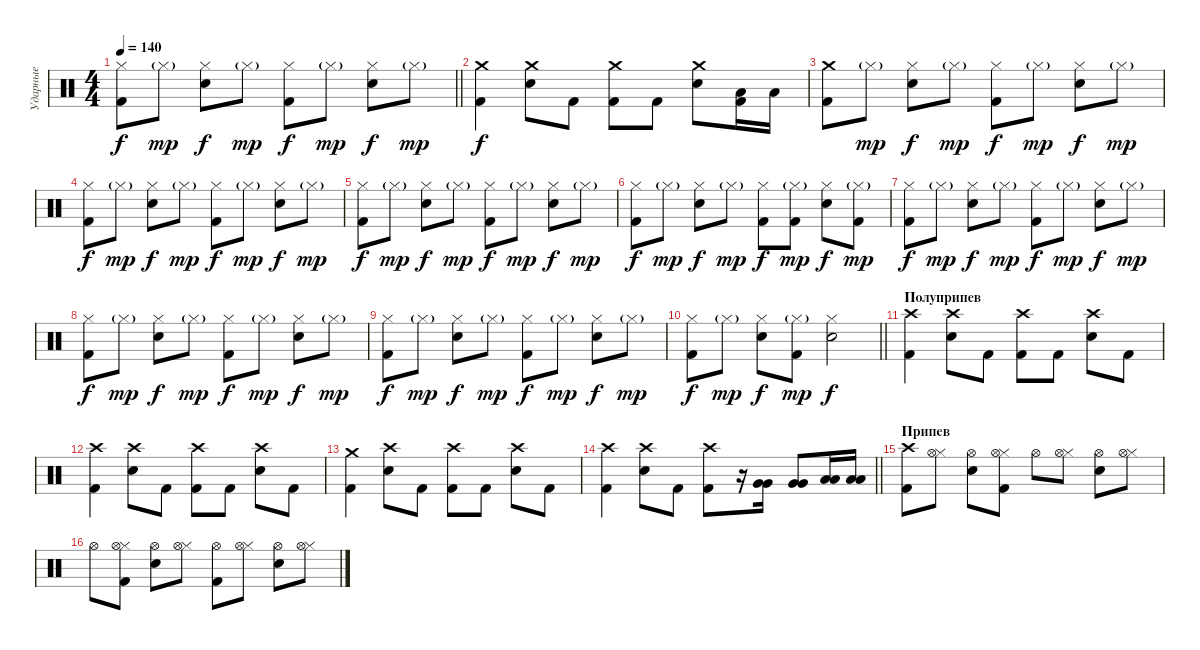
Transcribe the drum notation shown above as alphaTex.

\track ("Ударные" "Ударные") {instrument percussion}
\staff {score}
\articulation defaults
\ts (4 4)
\tempo 140
\clef neutral
\barLineRight lightlight
\ks c
("Hi-Hat (closed)" "Kick (hit) 2").8{dy f} "Hi-Hat (closed)"{g}.8{dy mp} ("Hi-Hat (closed)" "Snare (hit) 2").8{dy f} "Hi-Hat (closed)"{g}.8{dy mp} ("Hi-Hat (closed)" "Kick (hit) 2").8{dy f} "Hi-Hat (closed)"{g}.8{dy mp} ("Hi-Hat (closed)" "Snare (hit) 2").8{dy f} "Hi-Hat (closed)"{g}.8{dy mp} |
("Crash medium (hit)" "Kick (hit) 2").4{dy f} ("Crash medium (hit)" "Snare (hit) 2").8 "Kick (hit) 2".8 ("Crash medium (hit)" "Kick (hit) 2").8 "Kick (hit) 2".8 ("Crash medium (hit)" "Snare (hit) 2").8 ("Low Tom (hit)" "Kick (hit) 2").16 "Low Tom (hit)".16 |
("Crash medium (hit)" "Kick (hit) 2").8 "Hi-Hat (closed)"{g}.8{dy mp} ("Hi-Hat (closed)" "Snare (hit) 2").8{dy f} "Hi-Hat (closed)"{g}.8{dy mp} ("Hi-Hat (closed)" "Kick (hit) 2").8{dy f} "Hi-Hat (closed)"{g}.8{dy mp} ("Hi-Hat (closed)" "Snare (hit) 2").8{dy f} "Hi-Hat (closed)"{g}.8{dy mp} |
("Hi-Hat (closed)" "Kick (hit) 2").8{dy f} "Hi-Hat (closed)"{g}.8{dy mp} ("Hi-Hat (closed)" "Snare (hit) 2").8{dy f} "Hi-Hat (closed)"{g}.8{dy mp} ("Hi-Hat (closed)" "Kick (hit) 2").8{dy f} "Hi-Hat (closed)"{g}.8{dy mp} ("Hi-Hat (closed)" "Snare (hit) 2").8{dy f} "Hi-Hat (closed)"{g}.8{dy mp} |
("Hi-Hat (closed)" "Kick (hit) 2").8{dy f} "Hi-Hat (closed)"{g}.8{dy mp} ("Hi-Hat (closed)" "Snare (hit) 2").8{dy f} "Hi-Hat (closed)"{g}.8{dy mp} ("Hi-Hat (closed)" "Kick (hit) 2").8{dy f} "Hi-Hat (closed)"{g}.8{dy mp} ("Hi-Hat (closed)" "Snare (hit) 2").8{dy f} "Hi-Hat (closed)"{g}.8{dy mp} |
("Hi-Hat (closed)" "Kick (hit) 2").8{dy f} "Hi-Hat (closed)"{g}.8{dy mp} ("Hi-Hat (closed)" "Snare (hit) 2").8{dy f} "Hi-Hat (closed)"{g}.8{dy mp} ("Hi-Hat (closed)" "Kick (hit) 2").8{dy f} ("Hi-Hat (closed)"{g} "Kick (hit) 2").8{dy mp} ("Hi-Hat (closed)" "Snare (hit) 2").8{dy f} ("Hi-Hat (closed)"{g} "Kick (hit) 2").8{dy mp} |
("Hi-Hat (closed)" "Kick (hit) 2").8{dy f} "Hi-Hat (closed)"{g}.8{dy mp} ("Hi-Hat (closed)" "Snare (hit) 2").8{dy f} "Hi-Hat (closed)"{g}.8{dy mp} ("Hi-Hat (closed)" "Kick (hit) 2").8{dy f} "Hi-Hat (closed)"{g}.8{dy mp} ("Hi-Hat (closed)" "Snare (hit) 2").8{dy f} "Hi-Hat (closed)"{g}.8{dy mp} |
("Hi-Hat (closed)" "Kick (hit) 2").8{dy f} "Hi-Hat (closed)"{g}.8{dy mp} ("Hi-Hat (closed)" "Snare (hit) 2").8{dy f} "Hi-Hat (closed)"{g}.8{dy mp} ("Hi-Hat (closed)" "Kick (hit) 2").8{dy f} "Hi-Hat (closed)"{g}.8{dy mp} ("Hi-Hat (closed)" "Snare (hit) 2").8{dy f} "Hi-Hat (closed)"{g}.8{dy mp} |
("Hi-Hat (closed)" "Kick (hit) 2").8{dy f} "Hi-Hat (closed)"{g}.8{dy mp} ("Hi-Hat (closed)" "Snare (hit) 2").8{dy f} "Hi-Hat (closed)"{g}.8{dy mp} ("Hi-Hat (closed)" "Kick (hit) 2").8{dy f} "Hi-Hat (closed)"{g}.8{dy mp} ("Hi-Hat (closed)" "Snare (hit) 2").8{dy f} "Hi-Hat (closed)"{g}.8{dy mp} |
\barLineRight lightlight
("Hi-Hat (closed)" "Kick (hit) 2").8{dy f} "Hi-Hat (closed)"{g}.8{dy mp} ("Hi-Hat (closed)" "Snare (hit) 2").8{dy f} ("Hi-Hat (closed)"{g} "Kick (hit) 2").8{dy mp} ("Hi-Hat (closed)" "Snare (hit) 2").2{dy f} |
\section ("" "Полуприпев")
("Crash high (hit)" "Kick (hit) 2").4 ("Crash high (hit)" "Snare (hit) 2").8 "Kick (hit) 2".8 ("Crash high (hit)" "Kick (hit) 2").8 "Kick (hit) 2".8 ("Crash high (hit)" "Snare (hit) 2").8 "Kick (hit) 2".8 |
("Crash high (hit)" "Kick (hit) 2").4 ("Crash high (hit)" "Snare (hit) 2").8 "Kick (hit) 2".8 ("Crash high (hit)" "Kick (hit) 2").8 "Kick (hit) 2".8 ("Crash high (hit)" "Snare (hit) 2").8 "Kick (hit) 2".8 |
("Crash medium (hit)" "Kick (hit) 2").4 ("Crash high (hit)" "Snare (hit) 2").8 "Kick (hit) 2".8 ("Crash high (hit)" "Kick (hit) 2").8 "Kick (hit) 2".8 ("Crash high (hit)" "Snare (hit) 2").8 "Kick (hit) 2".8 |
\barLineRight lightlight
("Crash high (hit)" "Kick (hit) 2").4 ("Crash high (hit)" "Snare (hit) 2").8 "Kick (hit) 2".8 ("Crash high (hit)" "Kick (hit) 2").8 r.16 ("Very Low Tom (hit)" "Very Low Tom (hit)").16 ("Very Low Tom (hit)" "Very Low Tom (hit)").8 ("Low Tom (hit)" "Low Tom (hit)").16 ("Low Tom (hit)" "Low Tom (hit)").16 |
\section ("" "Припев")
("Crash high (hit)" "Kick (hit) 2").8 ("Hi-Hat (closed)" "Hi-Hat (open)").8 ("Hi-Hat (open)" "Snare (hit) 2").8 ("Hi-Hat (closed)" "Hi-Hat (open)" "Kick (hit) 2").8 "Hi-Hat (open)".8 ("Hi-Hat (closed)" "Hi-Hat (open)").8 ("Hi-Hat (open)" "Snare (hit) 2").8 ("Hi-Hat (closed)" "Hi-Hat (open)").8 |
"Hi-Hat (open)".8 ("Hi-Hat (closed)" "Hi-Hat (open)" "Kick (hit) 2").8 ("Hi-Hat (open)" "Snare (hit) 2").8 ("Hi-Hat (closed)" "Hi-Hat (open)").8 ("Hi-Hat (open)" "Kick (hit) 2").8 ("Hi-Hat (closed)" "Hi-Hat (open)").8 ("Hi-Hat (open)" "Snare (hit) 2").8 ("Hi-Hat (closed)" "Hi-Hat (open)").8
